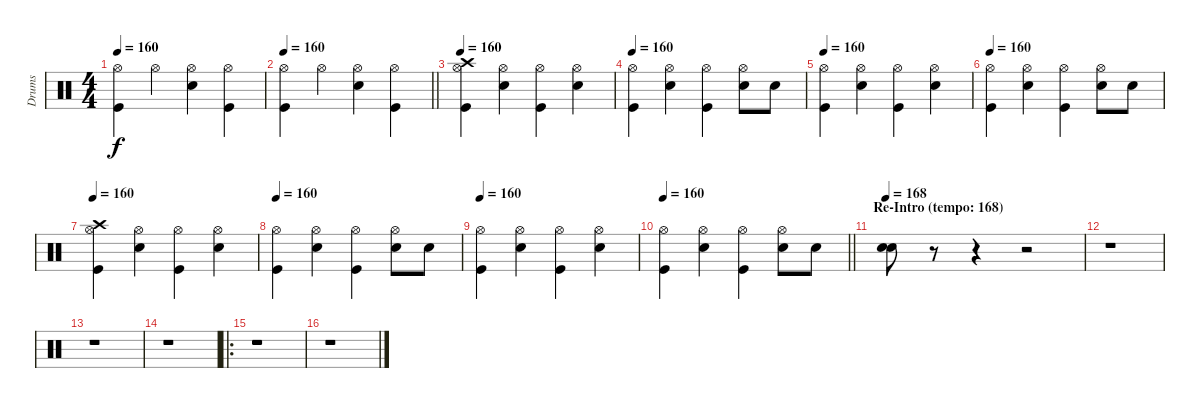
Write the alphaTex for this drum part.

\track ("Drums" "Drums") {instrument percussion}
\staff {score}
\articulation defaults
\ts (4 4)
\tempo 160
\clef neutral
\ks c
("Hi-Hat (open)" "Kick (hit)").4{dy f} "Hi-Hat (open)".4 ("Hi-Hat (open)" "Snare (hit) 2").4 ("Hi-Hat (open)" "Kick (hit)").4 |
\tempo 160
\barLineRight lightlight
("Hi-Hat (open)" "Kick (hit)").4 "Hi-Hat (open)".4 ("Hi-Hat (open)" "Snare (hit) 2").4 ("Hi-Hat (open)" "Kick (hit)").4 |
\tempo 160
("Crash high (hit)" "Hi-Hat (open)" "Kick (hit)").4 ("Hi-Hat (open)" "Snare (hit) 2").4 ("Hi-Hat (open)" "Kick (hit)").4 ("Hi-Hat (open)" "Snare (hit) 2").4 |
\tempo 160
("Hi-Hat (open)" "Kick (hit)").4 ("Hi-Hat (open)" "Snare (hit) 2").4 ("Hi-Hat (open)" "Kick (hit)").4 ("Hi-Hat (open)" "Snare (hit) 2").8 "Snare (hit) 2".8 |
\tempo 160
("Hi-Hat (open)" "Kick (hit)").4 ("Hi-Hat (open)" "Snare (hit) 2").4 ("Hi-Hat (open)" "Kick (hit)").4 ("Hi-Hat (open)" "Snare (hit) 2").4 |
\tempo 160
("Hi-Hat (open)" "Kick (hit)").4 ("Hi-Hat (open)" "Snare (hit) 2").4 ("Hi-Hat (open)" "Kick (hit)").4 ("Hi-Hat (open)" "Snare (hit) 2").8 "Snare (hit) 2".8 |
\tempo 160
("Crash high (hit)" "Hi-Hat (open)" "Kick (hit)").4 ("Hi-Hat (open)" "Snare (hit) 2").4 ("Hi-Hat (open)" "Kick (hit)").4 ("Hi-Hat (open)" "Snare (hit) 2").4 |
\tempo 160
("Hi-Hat (open)" "Kick (hit)").4 ("Hi-Hat (open)" "Snare (hit) 2").4 ("Hi-Hat (open)" "Kick (hit)").4 ("Hi-Hat (open)" "Snare (hit) 2").8 "Snare (hit) 2".8 |
\tempo 160
("Hi-Hat (open)" "Kick (hit)").4 ("Hi-Hat (open)" "Snare (hit) 2").4 ("Hi-Hat (open)" "Kick (hit)").4 ("Hi-Hat (open)" "Snare (hit) 2").4 |
\tempo 160
\barLineRight lightlight
("Hi-Hat (open)" "Kick (hit)").4 ("Hi-Hat (open)" "Snare (hit) 2").4 ("Hi-Hat (open)" "Kick (hit)").4 ("Hi-Hat (open)" "Snare (hit) 2").8 "Snare (hit) 2".8 |
\section ("" "Re-Intro (tempo: 168)")
\tempo 168
("Snare (hit) 2" "Snare (hit) 2").8{bd 120} r.8 r.4 r.2 |
r.1 |
r.1 |
r.1 |
\ro
r.1 |
r.1
